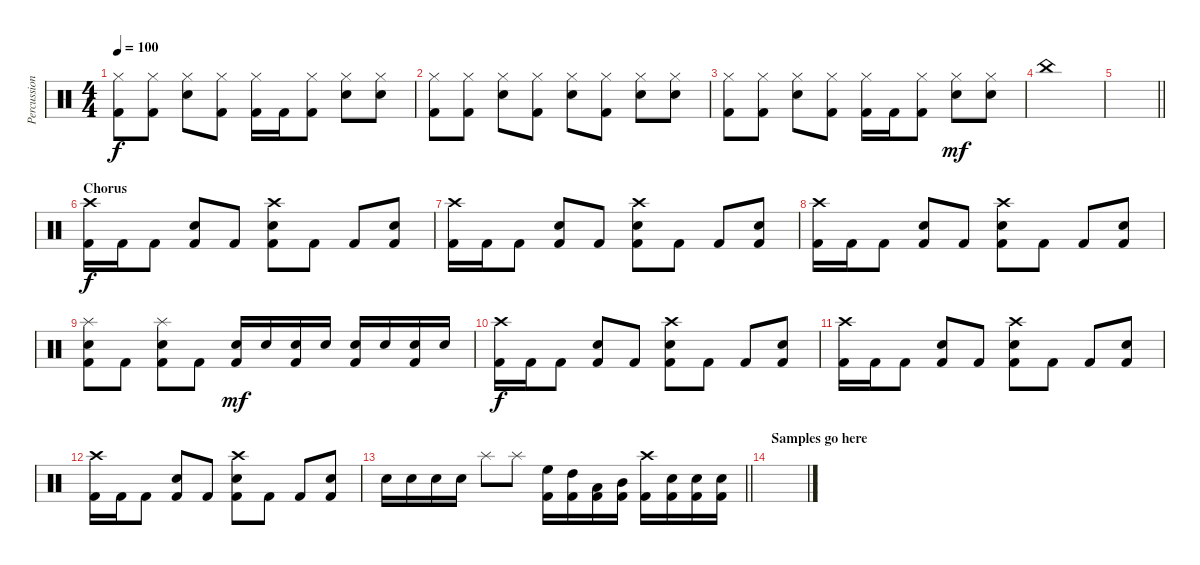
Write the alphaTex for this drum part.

\track ("Percussion" "Percussion") {instrument percussion}
\staff {score}
\articulation defaults
\ts (4 4)
\tempo 100
\clef neutral
\ks c
("Hi-Hat (closed)" "Kick (hit) 2").8{dy f} ("Hi-Hat (closed)" "Kick (hit) 2").8 ("Hi-Hat (closed)" "Snare (hit) 2").8 ("Hi-Hat (closed)" "Kick (hit) 2").8 ("Hi-Hat (closed)" "Kick (hit) 2").16 "Kick (hit) 2".16 ("Hi-Hat (closed)" "Kick (hit) 2").8 ("Hi-Hat (closed)" "Snare (hit) 2").8 ("Hi-Hat (closed)" "Snare (hit) 2").8 |
("Hi-Hat (closed)" "Kick (hit) 2").8 ("Hi-Hat (closed)" "Kick (hit) 2").8 ("Hi-Hat (closed)" "Snare (hit) 2").8 ("Hi-Hat (closed)" "Kick (hit) 2").8 ("Hi-Hat (closed)" "Snare (hit) 2").8 ("Hi-Hat (closed)" "Kick (hit) 2").8 ("Hi-Hat (closed)" "Snare (hit) 2").8 ("Hi-Hat (closed)" "Snare (hit) 2").8 |
("Hi-Hat (closed)" "Kick (hit) 2").8 ("Hi-Hat (closed)" "Kick (hit) 2").8 ("Hi-Hat (closed)" "Snare (hit) 2").8 ("Hi-Hat (closed)" "Kick (hit) 2").8 ("Hi-Hat (closed)" "Kick (hit) 2").16 "Kick (hit) 2".16 ("Hi-Hat (closed)" "Kick (hit) 2").8 ("Hi-Hat (closed)" "Snare (hit) 2").8{dy mf} ("Hi-Hat (closed)" "Snare (hit) 2").8 |
"China (hit)".1 |
\barLineRight lightlight
|
\section ("" "Chorus")
("Crash high (hit)" "Kick (hit) 2").16{dy f} "Kick (hit) 2".16 "Kick (hit) 2".8 ("Snare (hit) 2" "Kick (hit) 2").8 "Kick (hit) 2".8 ("Crash high (hit)" "Snare (hit) 2" "Kick (hit) 2").8 "Kick (hit) 2".8 "Kick (hit) 2".8 ("Snare (hit) 2" "Kick (hit) 2").8 |
("Crash high (hit)" "Kick (hit) 2").16 "Kick (hit) 2".16 "Kick (hit) 2".8 ("Snare (hit) 2" "Kick (hit) 2").8 "Kick (hit) 2".8 ("Crash high (hit)" "Snare (hit) 2" "Kick (hit) 2").8 "Kick (hit) 2".8 "Kick (hit) 2".8 ("Snare (hit) 2" "Kick (hit) 2").8 |
("Crash high (hit)" "Kick (hit) 2").16 "Kick (hit) 2".16 "Kick (hit) 2".8 ("Snare (hit) 2" "Kick (hit) 2").8 "Kick (hit) 2".8 ("Crash high (hit)" "Snare (hit) 2" "Kick (hit) 2").8 "Kick (hit) 2".8 "Kick (hit) 2".8 ("Snare (hit) 2" "Kick (hit) 2").8 |
("Splash (hit)" "Snare (hit) 2" "Kick (hit) 2").8 "Kick (hit) 2".8 ("Splash (hit)" "Snare (hit) 2" "Kick (hit) 2").8 "Kick (hit) 2".8 ("Snare (hit) 2" "Kick (hit) 2").16{dy mf} "Snare (hit) 2".16 ("Snare (hit) 2" "Kick (hit) 2").16 "Snare (hit) 2".16 ("Snare (hit) 2" "Kick (hit) 2").16 "Snare (hit) 2".16 ("Snare (hit) 2" "Kick (hit) 2").16 "Snare (hit) 2".16 |
("Crash high (hit)" "Kick (hit) 2").16{dy f} "Kick (hit) 2".16 "Kick (hit) 2".8 ("Snare (hit) 2" "Kick (hit) 2").8 "Kick (hit) 2".8 ("Crash high (hit)" "Snare (hit) 2" "Kick (hit) 2").8 "Kick (hit) 2".8 "Kick (hit) 2".8 ("Snare (hit) 2" "Kick (hit) 2").8 |
("Crash high (hit)" "Kick (hit) 2").16 "Kick (hit) 2".16 "Kick (hit) 2".8 ("Snare (hit) 2" "Kick (hit) 2").8 "Kick (hit) 2".8 ("Crash high (hit)" "Snare (hit) 2" "Kick (hit) 2").8 "Kick (hit) 2".8 "Kick (hit) 2".8 ("Snare (hit) 2" "Kick (hit) 2").8 |
("Crash high (hit)" "Kick (hit) 2").16 "Kick (hit) 2".16 "Kick (hit) 2".8 ("Snare (hit) 2" "Kick (hit) 2").8 "Kick (hit) 2".8 ("Crash high (hit)" "Snare (hit) 2" "Kick (hit) 2").8 "Kick (hit) 2".8 "Kick (hit) 2".8 ("Snare (hit) 2" "Kick (hit) 2").8 |
\barLineRight lightlight "Snare (hit) 2".16 "Snare (hit) 2".16 "Snare (hit) 2".16 "Snare (hit) 2".16 "Splash (hit)".8 "Splash (hit)".8
("High Floor Tom (hit)" "Kick (hit) 2").16 ("High Tom (hit)" "Kick (hit) 2").16 ("Low Tom (hit)" "Kick (hit) 2").16 ("Mid Tom (hit)" "Kick (hit) 2").16 ("Crash high (hit)" "Kick (hit) 2").16 ("Snare (hit) 2" "Kick (hit) 2").16 ("Snare (hit) 2" "Kick (hit) 2").16 ("Snare (hit) 2" "Kick (hit) 2").16 |
\section ("" "Samples go here")
